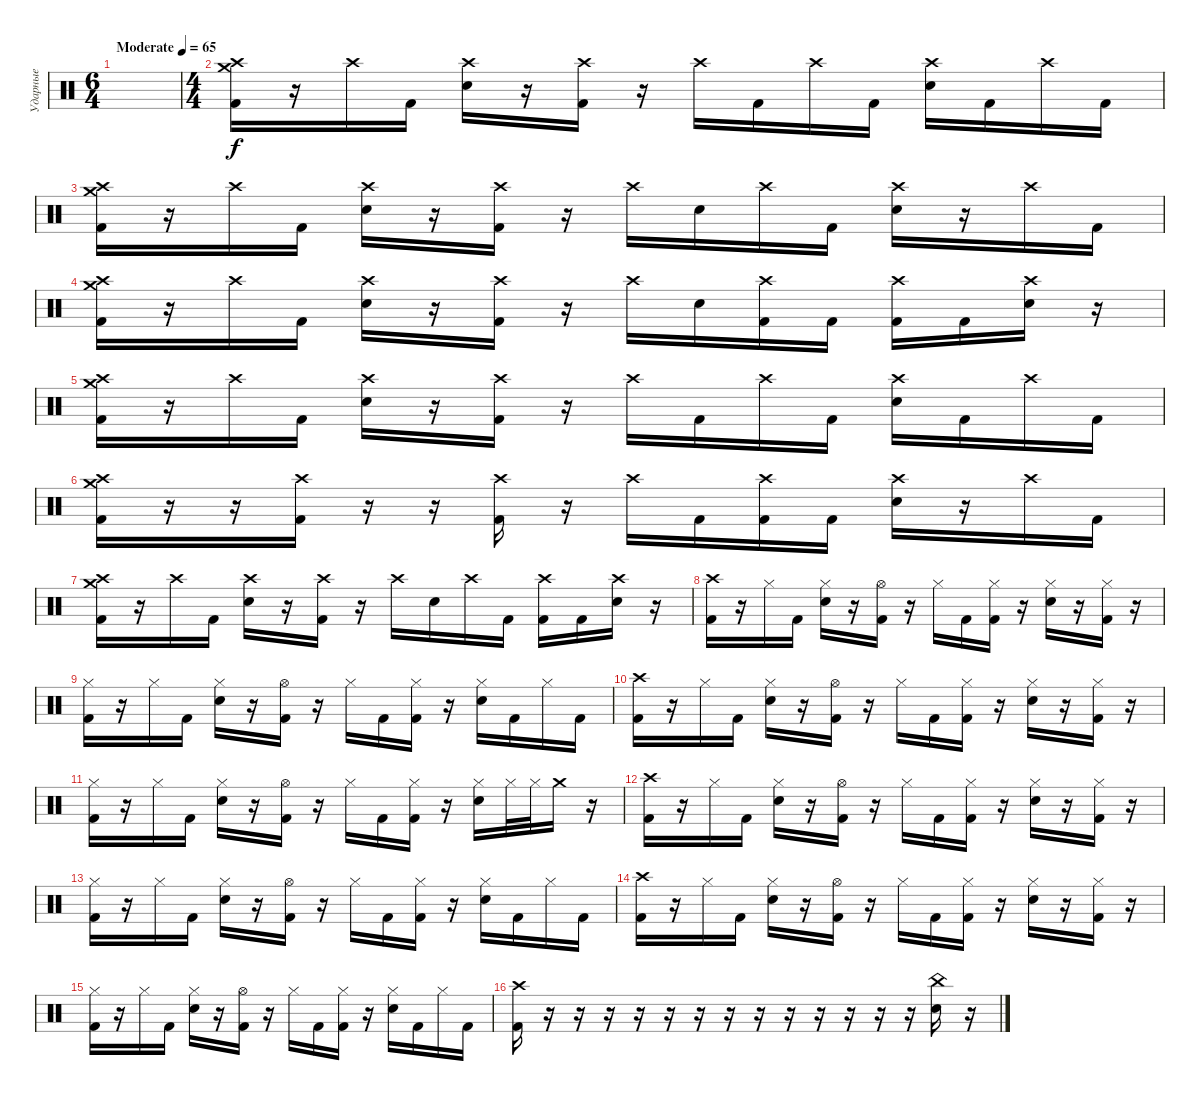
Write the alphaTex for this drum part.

\track ("Ударные" "Ударные") {instrument percussion}
\staff {score}
\articulation defaults
\ts (6 4)
\tempo (65 "Moderate")
\clef neutral
\ks c
|
\ts (4 4)
("Crash high (hit)" "Crash medium (hit)" "Kick (hit) 2").16 r.16 "Crash high (hit)".16 "Kick (hit) 2".16 ("Crash high (hit)" "Electric Snare (hit)").16 r.16 ("Crash high (hit)" "Kick (hit) 2").16 r.16 "Crash high (hit)".16 "Kick (hit) 2".16 "Crash high (hit)".16 "Kick (hit) 2".16 ("Crash high (hit)" "Electric Snare (hit)").16 "Kick (hit) 2".16 "Crash high (hit)".16 "Kick (hit) 2".16 |
("Crash high (hit)" "Crash medium (hit)" "Kick (hit) 2").16 r.16 "Crash high (hit)".16 "Kick (hit) 2".16 ("Crash high (hit)" "Electric Snare (hit)").16 r.16 ("Crash high (hit)" "Kick (hit) 2").16 r.16 "Crash high (hit)".16 "Electric Snare (hit)".16 "Crash high (hit)".16 "Kick (hit) 2".16 ("Crash high (hit)" "Electric Snare (hit)").16 r.16 "Crash high (hit)".16 "Kick (hit) 2".16 |
("Crash high (hit)" "Crash medium (hit)" "Kick (hit) 2").16 r.16 "Crash high (hit)".16 "Kick (hit) 2".16 ("Crash high (hit)" "Electric Snare (hit)").16 r.16 ("Crash high (hit)" "Kick (hit) 2").16 r.16 "Crash high (hit)".16 "Electric Snare (hit)".16 ("Crash high (hit)" "Kick (hit) 2").16 "Kick (hit) 2".16 ("Crash high (hit)" "Kick (hit) 2").16 "Kick (hit) 2".16 ("Crash high (hit)" "Electric Snare (hit)").16 r.16 |
("Crash high (hit)" "Crash medium (hit)" "Kick (hit) 2").16 r.16 "Crash high (hit)".16 "Kick (hit) 2".16 ("Crash high (hit)" "Electric Snare (hit)").16 r.16 ("Crash high (hit)" "Kick (hit) 2").16 r.16 "Crash high (hit)".16 "Kick (hit) 2".16 "Crash high (hit)".16 "Kick (hit) 2".16 ("Crash high (hit)" "Electric Snare (hit)").16 "Kick (hit) 2".16 "Crash high (hit)".16 "Kick (hit) 2".16 |
("Crash high (hit)" "Crash medium (hit)" "Kick (hit) 2").16 r.16 r.16 ("Crash high (hit)" "Kick (hit) 2").16 r.16 r.16 ("Crash high (hit)" "Kick (hit) 2").16 r.16 "Crash high (hit)".16 "Kick (hit) 2".16 ("Crash high (hit)" "Kick (hit) 2").16 "Kick (hit) 2".16 ("Crash high (hit)" "Electric Snare (hit)").16 r.16 "Crash high (hit)".16 "Kick (hit) 2".16 |
("Crash high (hit)" "Crash medium (hit)" "Kick (hit) 2").16 r.16 "Crash high (hit)".16 "Kick (hit) 2".16 ("Crash high (hit)" "Electric Snare (hit)").16 r.16 ("Crash high (hit)" "Kick (hit) 2").16 r.16 "Crash high (hit)".16 "Electric Snare (hit)".16 "Crash high (hit)".16 "Kick (hit) 2".16 ("Crash high (hit)" "Kick (hit) 2").16 "Kick (hit) 2".16 ("Crash high (hit)" "Electric Snare (hit)").16 r.16 |
("Crash high (hit)" "Kick (hit) 2").16 r.16 "Hi-Hat (closed)".16 "Kick (hit) 2".16 ("Hi-Hat (closed)" "Electric Snare (hit)").16 r.16 ("Hi-Hat (open)" "Kick (hit) 2").16 r.16 "Hi-Hat (closed)".16 "Kick (hit) 2".16 ("Hi-Hat (closed)" "Kick (hit) 2").16 r.16 ("Hi-Hat (closed)" "Electric Snare (hit)").16 r.16 ("Hi-Hat (closed)" "Kick (hit) 2").16 r.16 |
("Hi-Hat (closed)" "Kick (hit) 2").16 r.16 "Hi-Hat (closed)".16 "Kick (hit) 2".16 ("Hi-Hat (closed)" "Electric Snare (hit)").16 r.16 ("Hi-Hat (open)" "Kick (hit) 2").16 r.16 "Hi-Hat (closed)".16 "Kick (hit) 2".16 ("Hi-Hat (closed)" "Kick (hit) 2").16 r.16 ("Hi-Hat (closed)" "Electric Snare (hit)").16 "Kick (hit) 2".16 "Hi-Hat (closed)".16 "Kick (hit) 2".16 |
("Crash high (hit)" "Kick (hit) 2").16 r.16 "Hi-Hat (closed)".16 "Kick (hit) 2".16 ("Hi-Hat (closed)" "Electric Snare (hit)").16 r.16 ("Hi-Hat (open)" "Kick (hit) 2").16 r.16 "Hi-Hat (closed)".16 "Kick (hit) 2".16 ("Hi-Hat (closed)" "Kick (hit) 2").16 r.16 ("Hi-Hat (closed)" "Electric Snare (hit)").16 r.16 ("Hi-Hat (closed)" "Kick (hit) 2").16 r.16 |
("Hi-Hat (closed)" "Kick (hit) 2").16 r.16 "Hi-Hat (closed)".16 "Kick (hit) 2".16 ("Hi-Hat (closed)" "Electric Snare (hit)").16 r.16 ("Hi-Hat (open)" "Kick (hit) 2").16 r.16 "Hi-Hat (closed)".16 "Kick (hit) 2".16 ("Hi-Hat (closed)" "Kick (hit) 2").16 r.16 ("Hi-Hat (closed)" "Electric Snare (hit)").16 "Hi-Hat (closed)".32 "Hi-Hat (closed)".32 "Crash medium (hit)".16 r.16 |
("Crash high (hit)" "Kick (hit) 2").16 r.16 "Hi-Hat (closed)".16 "Kick (hit) 2".16 ("Hi-Hat (closed)" "Electric Snare (hit)").16 r.16 ("Hi-Hat (open)" "Kick (hit) 2").16 r.16 "Hi-Hat (closed)".16 "Kick (hit) 2".16 ("Hi-Hat (closed)" "Kick (hit) 2").16 r.16 ("Hi-Hat (closed)" "Electric Snare (hit)").16 r.16 ("Hi-Hat (closed)" "Kick (hit) 2").16 r.16 |
("Hi-Hat (closed)" "Kick (hit) 2").16 r.16 "Hi-Hat (closed)".16 "Kick (hit) 2".16 ("Hi-Hat (closed)" "Electric Snare (hit)").16 r.16 ("Hi-Hat (open)" "Kick (hit) 2").16 r.16 "Hi-Hat (closed)".16 "Kick (hit) 2".16 ("Hi-Hat (closed)" "Kick (hit) 2").16 r.16 ("Hi-Hat (closed)" "Electric Snare (hit)").16 "Kick (hit) 2".16 "Hi-Hat (closed)".16 "Kick (hit) 2".16 |
("Crash high (hit)" "Kick (hit) 2").16 r.16 "Hi-Hat (closed)".16 "Kick (hit) 2".16 ("Hi-Hat (closed)" "Electric Snare (hit)").16 r.16 ("Hi-Hat (open)" "Kick (hit) 2").16 r.16 "Hi-Hat (closed)".16 "Kick (hit) 2".16 ("Hi-Hat (closed)" "Kick (hit) 2").16 r.16 ("Hi-Hat (closed)" "Electric Snare (hit)").16 r.16 ("Hi-Hat (closed)" "Kick (hit) 2").16 r.16 |
("Hi-Hat (closed)" "Kick (hit) 2").16 r.16 "Hi-Hat (closed)".16 "Kick (hit) 2".16 ("Hi-Hat (closed)" "Electric Snare (hit)").16 r.16 ("Hi-Hat (open)" "Kick (hit) 2").16 r.16 "Hi-Hat (closed)".16 "Kick (hit) 2".16 ("Hi-Hat (closed)" "Kick (hit) 2").16 r.16 ("Hi-Hat (closed)" "Electric Snare (hit)").16 "Kick (hit) 2".16 "Hi-Hat (closed)".16 "Kick (hit) 2".16 |
("Crash high (hit)" "Kick (hit) 2").16 r.16 r.16 r.16 r.16 r.16 r.16 r.16 r.16 r.16 r.16 r.16 r.16 r.16 ("China (hit)" "Electric Snare (hit)").16 r.16
